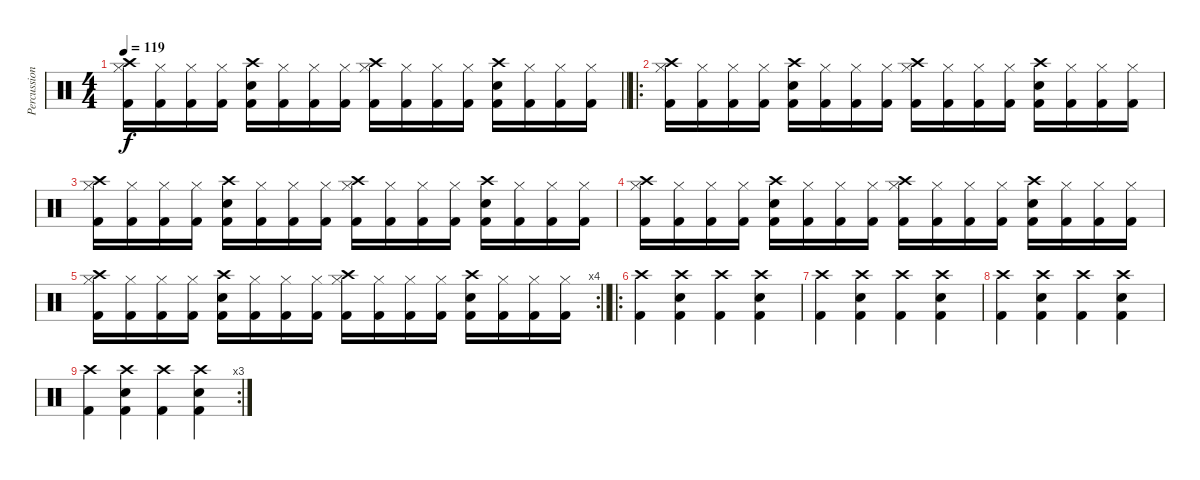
\track ("Percussion" "Percussion") {instrument percussion}
\staff {score}
\articulation defaults
\ts (4 4)
\tempo 119
\clef neutral
\barLineRight lightlight
\ks c
("Crash high (hit)" "Hi-Hat (closed)" "Kick (hit) 2").16{dy f} ("Hi-Hat (closed)" "Kick (hit) 2").16 ("Hi-Hat (closed)" "Kick (hit) 2").16 ("Hi-Hat (closed)" "Kick (hit) 2").16 ("Crash high (hit)" "Snare (hit) 2" "Kick (hit) 2").16 ("Hi-Hat (closed)" "Kick (hit) 2").16 ("Hi-Hat (closed)" "Kick (hit) 2").16 ("Hi-Hat (closed)" "Kick (hit) 2").16 ("Crash high (hit)" "Hi-Hat (closed)" "Kick (hit) 2").16 ("Hi-Hat (closed)" "Kick (hit) 2").16 ("Hi-Hat (closed)" "Kick (hit) 2").16 ("Hi-Hat (closed)" "Kick (hit) 2").16 ("Crash high (hit)" "Snare (hit) 2" "Kick (hit) 2").16 ("Hi-Hat (closed)" "Kick (hit) 2").16 ("Hi-Hat (closed)" "Kick (hit) 2").16 ("Hi-Hat (closed)" "Kick (hit) 2").16 |
\ro
("Crash high (hit)" "Hi-Hat (closed)" "Kick (hit) 2").16 ("Hi-Hat (closed)" "Kick (hit) 2").16 ("Hi-Hat (closed)" "Kick (hit) 2").16 ("Hi-Hat (closed)" "Kick (hit) 2").16 ("Crash high (hit)" "Snare (hit) 2" "Kick (hit) 2").16 ("Hi-Hat (closed)" "Kick (hit) 2").16 ("Hi-Hat (closed)" "Kick (hit) 2").16 ("Hi-Hat (closed)" "Kick (hit) 2").16 ("Crash high (hit)" "Hi-Hat (closed)" "Kick (hit) 2").16 ("Hi-Hat (closed)" "Kick (hit) 2").16 ("Hi-Hat (closed)" "Kick (hit) 2").16 ("Hi-Hat (closed)" "Kick (hit) 2").16 ("Crash high (hit)" "Snare (hit) 2" "Kick (hit) 2").16 ("Hi-Hat (closed)" "Kick (hit) 2").16 ("Hi-Hat (closed)" "Kick (hit) 2").16 ("Hi-Hat (closed)" "Kick (hit) 2").16 |
("Crash high (hit)" "Hi-Hat (closed)" "Kick (hit) 2").16 ("Hi-Hat (closed)" "Kick (hit) 2").16 ("Hi-Hat (closed)" "Kick (hit) 2").16 ("Hi-Hat (closed)" "Kick (hit) 2").16 ("Crash high (hit)" "Snare (hit) 2" "Kick (hit) 2").16 ("Hi-Hat (closed)" "Kick (hit) 2").16 ("Hi-Hat (closed)" "Kick (hit) 2").16 ("Hi-Hat (closed)" "Kick (hit) 2").16 ("Crash high (hit)" "Hi-Hat (closed)" "Kick (hit) 2").16 ("Hi-Hat (closed)" "Kick (hit) 2").16 ("Hi-Hat (closed)" "Kick (hit) 2").16 ("Hi-Hat (closed)" "Kick (hit) 2").16 ("Crash high (hit)" "Snare (hit) 2" "Kick (hit) 2").16 ("Hi-Hat (closed)" "Kick (hit) 2").16 ("Hi-Hat (closed)" "Kick (hit) 2").16 ("Hi-Hat (closed)" "Kick (hit) 2").16 |
("Crash high (hit)" "Hi-Hat (closed)" "Kick (hit) 2").16 ("Hi-Hat (closed)" "Kick (hit) 2").16 ("Hi-Hat (closed)" "Kick (hit) 2").16 ("Hi-Hat (closed)" "Kick (hit) 2").16 ("Crash high (hit)" "Snare (hit) 2" "Kick (hit) 2").16 ("Hi-Hat (closed)" "Kick (hit) 2").16 ("Hi-Hat (closed)" "Kick (hit) 2").16 ("Hi-Hat (closed)" "Kick (hit) 2").16 ("Crash high (hit)" "Hi-Hat (closed)" "Kick (hit) 2").16 ("Hi-Hat (closed)" "Kick (hit) 2").16 ("Hi-Hat (closed)" "Kick (hit) 2").16 ("Hi-Hat (closed)" "Kick (hit) 2").16 ("Crash high (hit)" "Snare (hit) 2" "Kick (hit) 2").16 ("Hi-Hat (closed)" "Kick (hit) 2").16 ("Hi-Hat (closed)" "Kick (hit) 2").16 ("Hi-Hat (closed)" "Kick (hit) 2").16 |
\rc 4
\barLineRight lightlight
("Crash high (hit)" "Hi-Hat (closed)" "Kick (hit) 2").16 ("Hi-Hat (closed)" "Kick (hit) 2").16 ("Hi-Hat (closed)" "Kick (hit) 2").16 ("Hi-Hat (closed)" "Kick (hit) 2").16 ("Crash high (hit)" "Snare (hit) 2" "Kick (hit) 2").16 ("Hi-Hat (closed)" "Kick (hit) 2").16 ("Hi-Hat (closed)" "Kick (hit) 2").16 ("Hi-Hat (closed)" "Kick (hit) 2").16 ("Crash high (hit)" "Hi-Hat (closed)" "Kick (hit) 2").16 ("Hi-Hat (closed)" "Kick (hit) 2").16 ("Hi-Hat (closed)" "Kick (hit) 2").16 ("Hi-Hat (closed)" "Kick (hit) 2").16 ("Crash high (hit)" "Snare (hit) 2" "Kick (hit) 2").16 ("Hi-Hat (closed)" "Kick (hit) 2").16 ("Hi-Hat (closed)" "Kick (hit) 2").16 ("Hi-Hat (closed)" "Kick (hit) 2").16 |
\ro
("Crash high (hit)" "Kick (hit) 2").4 ("Crash high (hit)" "Snare (hit) 2" "Kick (hit) 2").4 ("Crash high (hit)" "Kick (hit) 2").4 ("Crash high (hit)" "Snare (hit) 2" "Kick (hit) 2").4 |
("Crash high (hit)" "Kick (hit) 2").4 ("Crash high (hit)" "Snare (hit) 2" "Kick (hit) 2").4 ("Crash high (hit)" "Kick (hit) 2").4 ("Crash high (hit)" "Snare (hit) 2" "Kick (hit) 2").4 |
("Crash high (hit)" "Kick (hit) 2").4 ("Crash high (hit)" "Snare (hit) 2" "Kick (hit) 2").4 ("Crash high (hit)" "Kick (hit) 2").4 ("Crash high (hit)" "Snare (hit) 2" "Kick (hit) 2").4 |
\rc 3
("Crash high (hit)" "Kick (hit) 2").4 ("Crash high (hit)" "Snare (hit) 2" "Kick (hit) 2").4 ("Crash high (hit)" "Kick (hit) 2").4 ("Crash high (hit)" "Snare (hit) 2" "Kick (hit) 2").4
